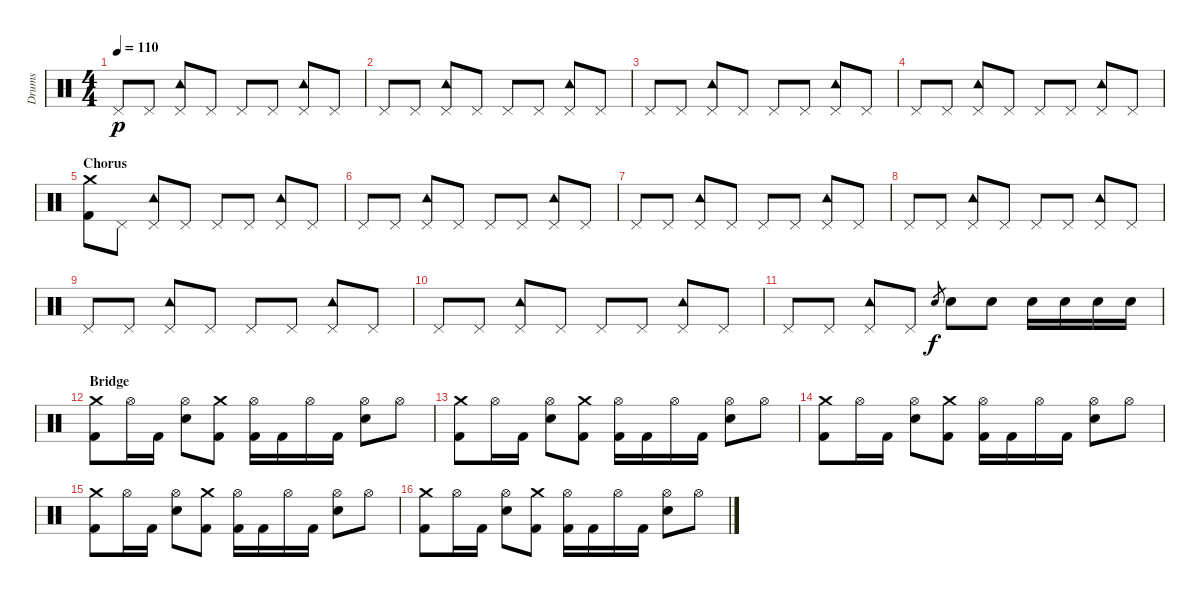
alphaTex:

\track ("Drums" "Drums") {instrument percussion}
\staff {score}
\articulation defaults
\ts (4 4)
\tempo 110
\clef neutral
\ks c "Pedal Hi-Hat (hit)".8{dy p} "Pedal Hi-Hat (hit)".8
("Pedal Hi-Hat (hit)" "Tambourine (hit)").8 "Pedal Hi-Hat (hit)".8 "Pedal Hi-Hat (hit)".8 "Pedal Hi-Hat (hit)".8 ("Pedal Hi-Hat (hit)" "Tambourine (hit)").8 "Pedal Hi-Hat (hit)".8 |
"Pedal Hi-Hat (hit)".8 "Pedal Hi-Hat (hit)".8 ("Pedal Hi-Hat (hit)" "Tambourine (hit)").8 "Pedal Hi-Hat (hit)".8 "Pedal Hi-Hat (hit)".8 "Pedal Hi-Hat (hit)".8 ("Pedal Hi-Hat (hit)" "Tambourine (hit)").8 "Pedal Hi-Hat (hit)".8 |
"Pedal Hi-Hat (hit)".8 "Pedal Hi-Hat (hit)".8 ("Pedal Hi-Hat (hit)" "Tambourine (hit)").8 "Pedal Hi-Hat (hit)".8 "Pedal Hi-Hat (hit)".8 "Pedal Hi-Hat (hit)".8 ("Pedal Hi-Hat (hit)" "Tambourine (hit)").8 "Pedal Hi-Hat (hit)".8 |
"Pedal Hi-Hat (hit)".8 "Pedal Hi-Hat (hit)".8 ("Pedal Hi-Hat (hit)" "Tambourine (hit)").8 "Pedal Hi-Hat (hit)".8 "Pedal Hi-Hat (hit)".8 "Pedal Hi-Hat (hit)".8 ("Pedal Hi-Hat (hit)" "Tambourine (hit)").8 "Pedal Hi-Hat (hit)".8 |
\section ("" "Chorus")
("Crash medium (hit)" "Kick (hit) 2").8 "Pedal Hi-Hat (hit)".8 ("Pedal Hi-Hat (hit)" "Tambourine (hit)").8 "Pedal Hi-Hat (hit)".8 "Pedal Hi-Hat (hit)".8 "Pedal Hi-Hat (hit)".8 ("Pedal Hi-Hat (hit)" "Tambourine (hit)").8 "Pedal Hi-Hat (hit)".8 |
"Pedal Hi-Hat (hit)".8 "Pedal Hi-Hat (hit)".8 ("Pedal Hi-Hat (hit)" "Tambourine (hit)").8 "Pedal Hi-Hat (hit)".8 "Pedal Hi-Hat (hit)".8 "Pedal Hi-Hat (hit)".8 ("Pedal Hi-Hat (hit)" "Tambourine (hit)").8 "Pedal Hi-Hat (hit)".8 |
"Pedal Hi-Hat (hit)".8 "Pedal Hi-Hat (hit)".8 ("Pedal Hi-Hat (hit)" "Tambourine (hit)").8 "Pedal Hi-Hat (hit)".8 "Pedal Hi-Hat (hit)".8 "Pedal Hi-Hat (hit)".8 ("Pedal Hi-Hat (hit)" "Tambourine (hit)").8 "Pedal Hi-Hat (hit)".8 |
"Pedal Hi-Hat (hit)".8 "Pedal Hi-Hat (hit)".8 ("Pedal Hi-Hat (hit)" "Tambourine (hit)").8 "Pedal Hi-Hat (hit)".8 "Pedal Hi-Hat (hit)".8 "Pedal Hi-Hat (hit)".8 ("Pedal Hi-Hat (hit)" "Tambourine (hit)").8 "Pedal Hi-Hat (hit)".8 |
"Pedal Hi-Hat (hit)".8 "Pedal Hi-Hat (hit)".8 ("Pedal Hi-Hat (hit)" "Tambourine (hit)").8 "Pedal Hi-Hat (hit)".8 "Pedal Hi-Hat (hit)".8 "Pedal Hi-Hat (hit)".8 ("Pedal Hi-Hat (hit)" "Tambourine (hit)").8 "Pedal Hi-Hat (hit)".8 |
"Pedal Hi-Hat (hit)".8 "Pedal Hi-Hat (hit)".8 ("Pedal Hi-Hat (hit)" "Tambourine (hit)").8 "Pedal Hi-Hat (hit)".8 "Pedal Hi-Hat (hit)".8 "Pedal Hi-Hat (hit)".8 ("Pedal Hi-Hat (hit)" "Tambourine (hit)").8 "Pedal Hi-Hat (hit)".8 |
"Pedal Hi-Hat (hit)".8 "Pedal Hi-Hat (hit)".8 ("Pedal Hi-Hat (hit)" "Tambourine (hit)").8 "Pedal Hi-Hat (hit)".8 "Electric Snare (hit)".8{gr dy f} "Electric Snare (hit)".8 "Electric Snare (hit)".8 "Electric Snare (hit)".16 "Electric Snare (hit)".16 "Electric Snare (hit)".16 "Electric Snare (hit)".16 |
\section ("" "Bridge")
("Crash medium (hit)" "Kick (hit) 2").8 "Hi-Hat (open)".16 "Kick (hit) 2".16 ("Hi-Hat (open)" "Electric Snare (hit)").8 ("Crash medium (hit)" "Kick (hit) 2").8 ("Hi-Hat (open)" "Kick (hit) 2").16 "Kick (hit) 2".16 "Hi-Hat (open)".16 "Kick (hit) 2".16 ("Hi-Hat (open)" "Electric Snare (hit)").8 "Hi-Hat (open)".8 |
("Crash medium (hit)" "Kick (hit) 2").8 "Hi-Hat (open)".16 "Kick (hit) 2".16 ("Hi-Hat (open)" "Electric Snare (hit)").8 ("Crash medium (hit)" "Kick (hit) 2").8 ("Hi-Hat (open)" "Kick (hit) 2").16 "Kick (hit) 2".16 "Hi-Hat (open)".16 "Kick (hit) 2".16 ("Hi-Hat (open)" "Electric Snare (hit)").8 "Hi-Hat (open)".8 |
("Crash medium (hit)" "Kick (hit) 2").8 "Hi-Hat (open)".16 "Kick (hit) 2".16 ("Hi-Hat (open)" "Electric Snare (hit)").8 ("Crash medium (hit)" "Kick (hit) 2").8 ("Hi-Hat (open)" "Kick (hit) 2").16 "Kick (hit) 2".16 "Hi-Hat (open)".16 "Kick (hit) 2".16 ("Hi-Hat (open)" "Electric Snare (hit)").8 "Hi-Hat (open)".8 |
("Crash medium (hit)" "Kick (hit) 2").8 "Hi-Hat (open)".16 "Kick (hit) 2".16 ("Hi-Hat (open)" "Electric Snare (hit)").8 ("Crash medium (hit)" "Kick (hit) 2").8 ("Hi-Hat (open)" "Kick (hit) 2").16 "Kick (hit) 2".16 "Hi-Hat (open)".16 "Kick (hit) 2".16 ("Hi-Hat (open)" "Electric Snare (hit)").8 "Hi-Hat (open)".8 |
("Crash medium (hit)" "Kick (hit) 2").8 "Hi-Hat (open)".16 "Kick (hit) 2".16 ("Hi-Hat (open)" "Electric Snare (hit)").8 ("Crash medium (hit)" "Kick (hit) 2").8 ("Hi-Hat (open)" "Kick (hit) 2").16 "Kick (hit) 2".16 "Hi-Hat (open)".16 "Kick (hit) 2".16 ("Hi-Hat (open)" "Electric Snare (hit)").8 "Hi-Hat (open)".8
